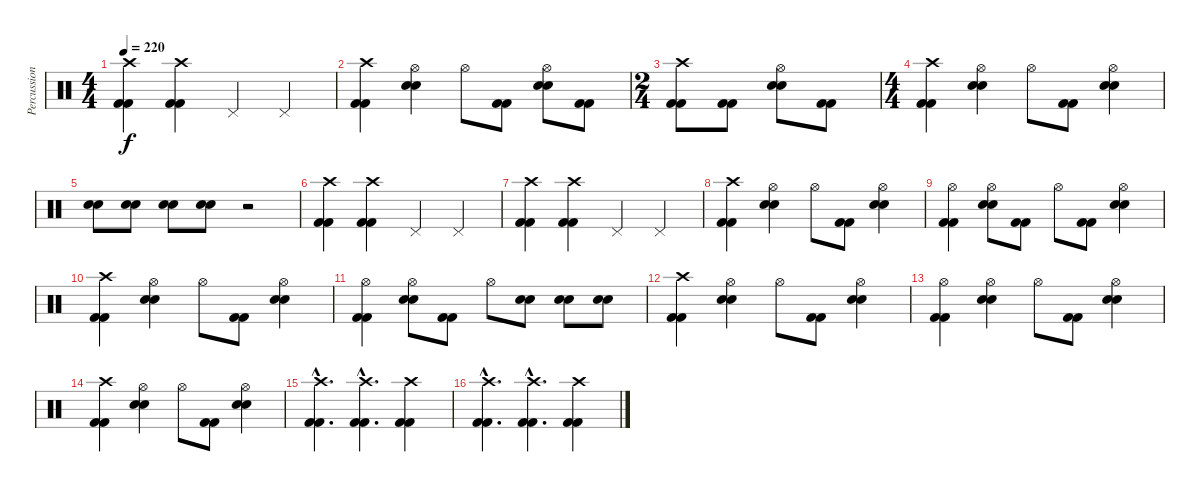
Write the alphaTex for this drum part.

\track ("Percussion" "Percussion") {instrument percussion}
\staff {score}
\articulation defaults
\ts (4 4)
\tempo 220
\clef neutral
\ks c
("Crash high (hit)" "Kick (hit) 2" "Kick (hit) 2").4{dy f} ("Crash high (hit)" "Kick (hit) 2" "Kick (hit) 2").4 "Pedal Hi-Hat (hit)".4 "Pedal Hi-Hat (hit)".4 |
("Crash high (hit)" "Kick (hit) 2" "Kick (hit) 2").4 ("Hi-Hat (open)" "Electric Snare (hit)" "Electric Snare (hit)").4 "Hi-Hat (open)".8 ("Kick (hit) 2" "Kick (hit) 2").8 ("Hi-Hat (open)" "Electric Snare (hit)" "Electric Snare (hit)").8 ("Kick (hit) 2" "Kick (hit) 2").8 |
\ts (2 4)
("Crash high (hit)" "Kick (hit) 2" "Kick (hit) 2").8 ("Kick (hit) 2" "Kick (hit) 2").8 ("Hi-Hat (open)" "Electric Snare (hit)" "Electric Snare (hit)").8 ("Kick (hit) 2" "Kick (hit) 2").8 |
\ts (4 4)
("Crash high (hit)" "Kick (hit) 2" "Kick (hit) 2").4 ("Hi-Hat (open)" "Electric Snare (hit)" "Electric Snare (hit)").4 "Hi-Hat (open)".8 ("Kick (hit) 2" "Kick (hit) 2").8 ("Hi-Hat (open)" "Electric Snare (hit)" "Electric Snare (hit)").4 |
("Electric Snare (hit)" "Electric Snare (hit)").8 ("Electric Snare (hit)" "Electric Snare (hit)").8 ("Electric Snare (hit)" "Electric Snare (hit)").8 ("Electric Snare (hit)" "Electric Snare (hit)").8 r.2 |
("Crash high (hit)" "Kick (hit) 2" "Kick (hit) 2").4 ("Crash high (hit)" "Kick (hit) 2" "Kick (hit) 2").4 "Pedal Hi-Hat (hit)".4 "Pedal Hi-Hat (hit)".4 |
("Crash high (hit)" "Kick (hit) 2" "Kick (hit) 2").4 ("Crash high (hit)" "Kick (hit) 2" "Kick (hit) 2").4 "Pedal Hi-Hat (hit)".4 "Pedal Hi-Hat (hit)".4 |
("Crash high (hit)" "Kick (hit) 2" "Kick (hit) 2").4 ("Hi-Hat (open)" "Electric Snare (hit)" "Electric Snare (hit)").4 "Hi-Hat (open)".8 ("Kick (hit) 2" "Kick (hit) 2").8 ("Hi-Hat (open)" "Electric Snare (hit)" "Electric Snare (hit)").4 |
("Hi-Hat (open)" "Kick (hit) 2" "Kick (hit) 2").4 ("Hi-Hat (open)" "Electric Snare (hit)" "Electric Snare (hit)").8 ("Kick (hit) 2" "Kick (hit) 2").8 "Hi-Hat (open)".8 ("Kick (hit) 2" "Kick (hit) 2").8 ("Hi-Hat (open)" "Electric Snare (hit)" "Electric Snare (hit)").4 |
("Crash high (hit)" "Kick (hit) 2" "Kick (hit) 2").4 ("Hi-Hat (open)" "Electric Snare (hit)" "Electric Snare (hit)").4 "Hi-Hat (open)".8 ("Kick (hit) 2" "Kick (hit) 2").8 ("Hi-Hat (open)" "Electric Snare (hit)" "Electric Snare (hit)").4 |
("Hi-Hat (open)" "Kick (hit) 2" "Kick (hit) 2").4 ("Hi-Hat (open)" "Electric Snare (hit)" "Electric Snare (hit)").8 ("Kick (hit) 2" "Kick (hit) 2").8 "Hi-Hat (open)".8 ("Electric Snare (hit)" "Electric Snare (hit)").8 ("Electric Snare (hit)" "Electric Snare (hit)").8 ("Electric Snare (hit)" "Electric Snare (hit)").8 |
("Crash high (hit)" "Kick (hit) 2" "Kick (hit) 2").4 ("Hi-Hat (open)" "Electric Snare (hit)" "Electric Snare (hit)").4 "Hi-Hat (open)".8 ("Kick (hit) 2" "Kick (hit) 2").8 ("Hi-Hat (open)" "Electric Snare (hit)" "Electric Snare (hit)").4 |
("Hi-Hat (open)" "Kick (hit) 2" "Kick (hit) 2").4 ("Hi-Hat (open)" "Electric Snare (hit)" "Electric Snare (hit)").4 "Hi-Hat (open)".8 ("Kick (hit) 2" "Kick (hit) 2").8 ("Hi-Hat (open)" "Electric Snare (hit)" "Electric Snare (hit)").4 |
("Crash high (hit)" "Kick (hit) 2" "Kick (hit) 2").4 ("Hi-Hat (open)" "Electric Snare (hit)" "Electric Snare (hit)").4 "Hi-Hat (open)".8 ("Kick (hit) 2" "Kick (hit) 2").8 ("Hi-Hat (open)" "Electric Snare (hit)" "Electric Snare (hit)").4 |
("Crash high (hit)"{hac} "Kick (hit) 2"{hac} "Kick (hit) 2"{hac}).4{d} ("Crash high (hit)"{hac} "Kick (hit) 2"{hac} "Kick (hit) 2"{hac}).4{d} ("Crash high (hit)" "Kick (hit) 2" "Kick (hit) 2").4 |
("Crash high (hit)"{hac} "Kick (hit) 2"{hac} "Kick (hit) 2"{hac}).4{d} ("Crash high (hit)"{hac} "Kick (hit) 2"{hac} "Kick (hit) 2"{hac}).4{d} ("Crash high (hit)" "Kick (hit) 2" "Kick (hit) 2").4
